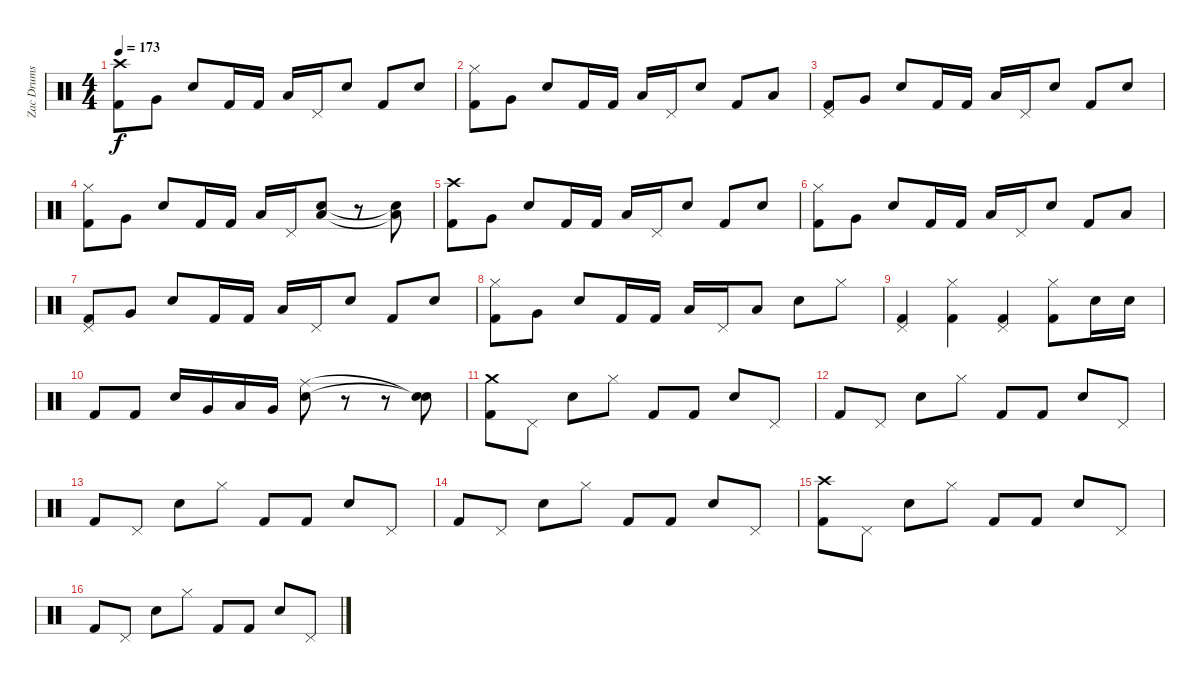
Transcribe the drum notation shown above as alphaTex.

\track ("Zac Drums" "Zac Drums") {instrument percussion}
\staff {score}
\articulation defaults
\ts (4 4)
\tempo 173
\clef neutral
\ks c
("Crash high (hit)" "Kick (hit) 2").8{dy f} "Very Low Tom (hit)".8 "Electric Snare (hit)".8 "Kick (hit) 2".16 "Kick (hit) 2".16 "Low Tom (hit)".16 "Pedal Hi-Hat (hit)".16 "Electric Snare (hit)".8 "Kick (hit) 2".8 "Electric Snare (hit)".8 |
("Hi-Hat (closed)" "Kick (hit) 2").8 "Very Low Tom (hit)".8 "Electric Snare (hit)".8 "Kick (hit) 2".16 "Kick (hit) 2".16 "Low Tom (hit)".16 "Pedal Hi-Hat (hit)".16 "Electric Snare (hit)".8 "Kick (hit) 2".8 "Low Tom (hit)".8 |
("Pedal Hi-Hat (hit)" "Kick (hit) 2").8 "Very Low Tom (hit)".8 "Electric Snare (hit)".8 "Kick (hit) 2".16 "Kick (hit) 2".16 "Low Tom (hit)".16 "Pedal Hi-Hat (hit)".16 "Electric Snare (hit)".8 "Kick (hit) 2".8 "Electric Snare (hit)".8 |
("Hi-Hat (closed)" "Kick (hit) 2").8 "Very Low Tom (hit)".8 "Electric Snare (hit)".8 "Kick (hit) 2".16 "Kick (hit) 2".16 "Low Tom (hit)".16 "Pedal Hi-Hat (hit)".16 ("Low Tom (hit)" "Electric Snare (hit)").8 r.8 ("Low Tom (hit)"{t} "Snare (hit)"{t}).8 |
("Crash high (hit)" "Kick (hit) 2").8 "Very Low Tom (hit)".8 "Electric Snare (hit)".8 "Kick (hit) 2".16 "Kick (hit) 2".16 "Low Tom (hit)".16 "Pedal Hi-Hat (hit)".16 "Electric Snare (hit)".8 "Kick (hit) 2".8 "Electric Snare (hit)".8 |
("Hi-Hat (closed)" "Kick (hit) 2").8 "Very Low Tom (hit)".8 "Electric Snare (hit)".8 "Kick (hit) 2".16 "Kick (hit) 2".16 "Low Tom (hit)".16 "Pedal Hi-Hat (hit)".16 "Electric Snare (hit)".8 "Kick (hit) 2".8 "Low Tom (hit)".8 |
("Pedal Hi-Hat (hit)" "Kick (hit) 2").8 "Very Low Tom (hit)".8 "Electric Snare (hit)".8 "Kick (hit) 2".16 "Kick (hit) 2".16 "Low Tom (hit)".16 "Pedal Hi-Hat (hit)".16 "Electric Snare (hit)".8 "Kick (hit) 2".8 "Electric Snare (hit)".8 |
("Hi-Hat (closed)" "Kick (hit) 2").8 "Very Low Tom (hit)".8 "Electric Snare (hit)".8 "Kick (hit) 2".16 "Kick (hit) 2".16 "Low Tom (hit)".16 "Pedal Hi-Hat (hit)".16 "Low Tom (hit)".8 "Electric Snare (hit)".8 "Hi-Hat (closed)".8 |
("Pedal Hi-Hat (hit)" "Kick (hit) 2").4 ("Hi-Hat (closed)" "Kick (hit) 2").4 ("Pedal Hi-Hat (hit)" "Kick (hit) 2").4 ("Hi-Hat (closed)" "Kick (hit) 2").8 "Electric Snare (hit)".16 "Electric Snare (hit)".16 |
"Kick (hit) 2".8 "Kick (hit) 2".8 "Electric Snare (hit)".16 "Very Low Tom (hit)".16 "Low Tom (hit)".16 "Very Low Tom (hit)".16 ("Ride (middle)" "Electric Snare (hit)").8 r.8 r.8 ("Snare (hit)"{t} "Snare (hit)"{t}).8 |
("Crash medium (hit)" "Kick (hit) 2").8 "Pedal Hi-Hat (hit)".8 "Electric Snare (hit)".8 "Hi-Hat (closed)".8 "Kick (hit) 2".8 "Kick (hit) 2".8 "Electric Snare (hit)".8 "Pedal Hi-Hat (hit)".8 |
"Kick (hit) 2".8 "Pedal Hi-Hat (hit)".8 "Electric Snare (hit)".8 "Hi-Hat (closed)".8 "Kick (hit) 2".8 "Kick (hit) 2".8 "Electric Snare (hit)".8 "Pedal Hi-Hat (hit)".8 |
"Kick (hit) 2".8 "Pedal Hi-Hat (hit)".8 "Electric Snare (hit)".8 "Hi-Hat (closed)".8 "Kick (hit) 2".8 "Kick (hit) 2".8 "Electric Snare (hit)".8 "Pedal Hi-Hat (hit)".8 |
"Kick (hit) 2".8 "Pedal Hi-Hat (hit)".8 "Electric Snare (hit)".8 "Hi-Hat (closed)".8 "Kick (hit) 2".8 "Kick (hit) 2".8 "Electric Snare (hit)".8 "Pedal Hi-Hat (hit)".8 |
("Crash high (hit)" "Kick (hit) 2").8 "Pedal Hi-Hat (hit)".8 "Electric Snare (hit)".8 "Hi-Hat (closed)".8 "Kick (hit) 2".8 "Kick (hit) 2".8 "Electric Snare (hit)".8 "Pedal Hi-Hat (hit)".8 |
"Kick (hit) 2".8 "Pedal Hi-Hat (hit)".8 "Electric Snare (hit)".8 "Hi-Hat (closed)".8 "Kick (hit) 2".8 "Kick (hit) 2".8 "Electric Snare (hit)".8 "Pedal Hi-Hat (hit)".8
